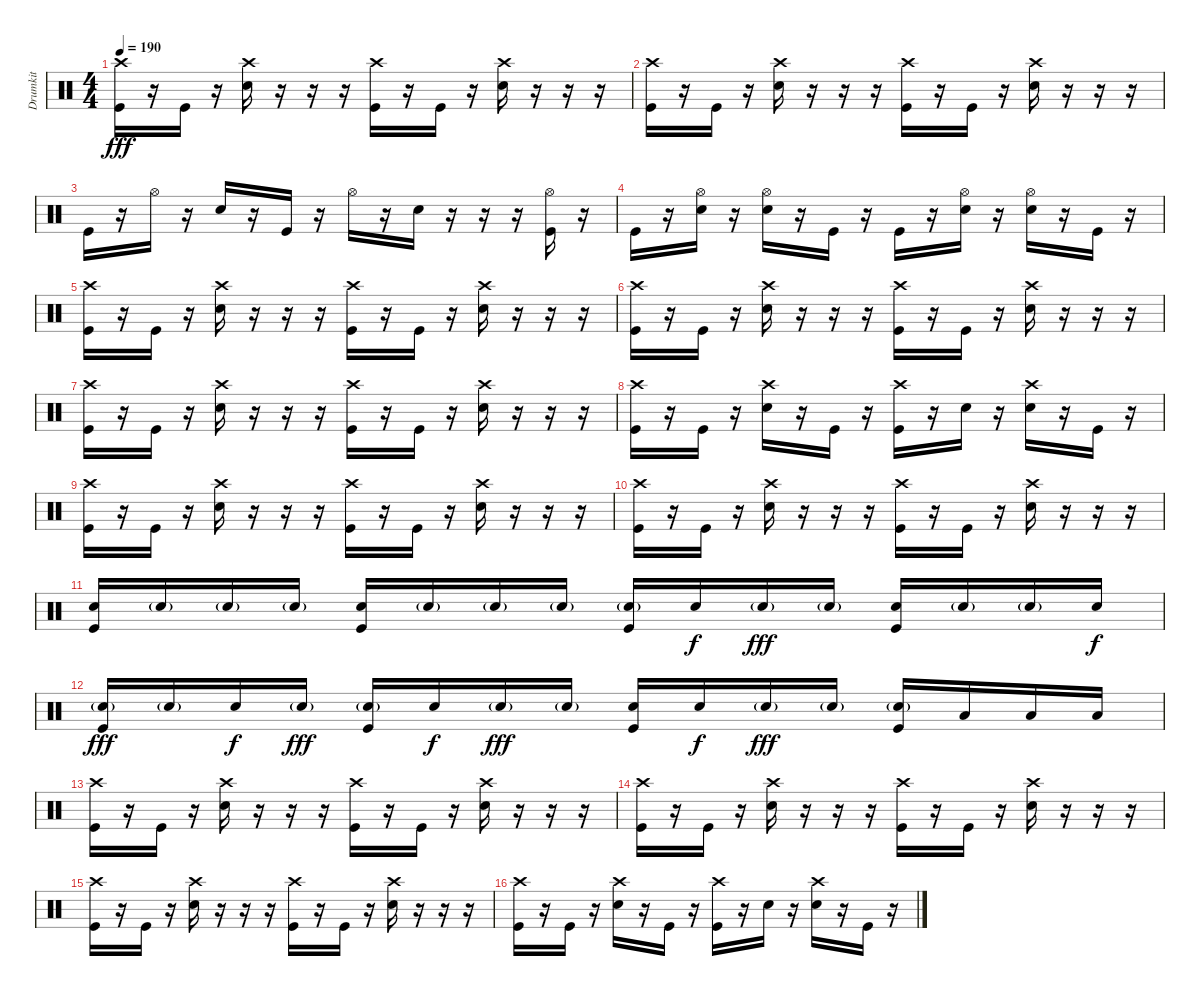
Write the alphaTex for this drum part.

\track ("Drumkit" "Drumkit") {instrument percussion}
\staff {score}
\articulation defaults
\ts (4 4)
\tempo 190
\clef neutral
\ks c
("Crash high (hit)" "Kick (hit)").16{dy fff} r.16 "Kick (hit)".16 r.16 ("Crash high (hit)" "Snare (hit) 2").16 r.16 r.16 r.16 ("Crash high (hit)" "Kick (hit)").16 r.16 "Kick (hit)".16 r.16 ("Crash high (hit)" "Snare (hit) 2").16 r.16 r.16 r.16 |
("Crash high (hit)" "Kick (hit)").16 r.16 "Kick (hit)".16 r.16 ("Crash high (hit)" "Snare (hit) 2").16 r.16 r.16 r.16 ("Crash high (hit)" "Kick (hit)").16 r.16 "Kick (hit)".16 r.16 ("Crash high (hit)" "Snare (hit) 2").16 r.16 r.16 r.16 |
"Kick (hit)".16 r.16 "Hi-Hat (open)".16 r.16 "Snare (hit) 2".16 r.16 "Kick (hit)".16 r.16 "Hi-Hat (open)".16 r.16 "Snare (hit) 2".16 r.16 r.16 r.16 ("Hi-Hat (open)" "Kick (hit)").16 r.16 |
"Kick (hit)".16 r.16 ("Hi-Hat (open)" "Snare (hit) 2").16 r.16 ("Hi-Hat (open)" "Snare (hit) 2").16 r.16 "Kick (hit)".16 r.16 "Kick (hit)".16 r.16 ("Hi-Hat (open)" "Snare (hit) 2").16 r.16 ("Hi-Hat (open)" "Snare (hit) 2").16 r.16 "Kick (hit)".16 r.16 |
("Crash high (hit)" "Kick (hit)").16 r.16 "Kick (hit)".16 r.16 ("Crash high (hit)" "Snare (hit) 2").16 r.16 r.16 r.16 ("Crash high (hit)" "Kick (hit)").16 r.16 "Kick (hit)".16 r.16 ("Crash high (hit)" "Snare (hit) 2").16 r.16 r.16 r.16 |
("Crash high (hit)" "Kick (hit)").16 r.16 "Kick (hit)".16 r.16 ("Crash high (hit)" "Snare (hit) 2").16 r.16 r.16 r.16 ("Crash high (hit)" "Kick (hit)").16 r.16 "Kick (hit)".16 r.16 ("Crash high (hit)" "Snare (hit) 2").16 r.16 r.16 r.16 |
("Crash high (hit)" "Kick (hit)").16 r.16 "Kick (hit)".16 r.16 ("Crash high (hit)" "Snare (hit) 2").16 r.16 r.16 r.16 ("Crash high (hit)" "Kick (hit)").16 r.16 "Kick (hit)".16 r.16 ("Crash high (hit)" "Snare (hit) 2").16 r.16 r.16 r.16 |
("Crash high (hit)" "Kick (hit)").16 r.16 "Kick (hit)".16 r.16 ("Crash high (hit)" "Snare (hit) 2").16 r.16 "Kick (hit)".16 r.16 ("Crash high (hit)" "Kick (hit)").16 r.16 "Snare (hit) 2".16 r.16 ("Crash high (hit)" "Snare (hit) 2").16 r.16 "Kick (hit)".16 r.16 |
("Crash high (hit)" "Kick (hit)").16 r.16 "Kick (hit)".16 r.16 ("Crash high (hit)" "Snare (hit) 2").16 r.16 r.16 r.16 ("Crash high (hit)" "Kick (hit)").16 r.16 "Kick (hit)".16 r.16 ("Crash high (hit)" "Snare (hit) 2").16 r.16 r.16 r.16 |
("Crash high (hit)" "Kick (hit)").16 r.16 "Kick (hit)".16 r.16 ("Crash high (hit)" "Snare (hit) 2").16 r.16 r.16 r.16 ("Crash high (hit)" "Kick (hit)").16 r.16 "Kick (hit)".16 r.16 ("Crash high (hit)" "Snare (hit) 2").16 r.16 r.16 r.16 |
("Snare (hit) 2" "Kick (hit)").16 "Snare (hit) 2"{g}.16 "Snare (hit) 2"{g}.16 "Snare (hit) 2"{g}.16 ("Snare (hit) 2" "Kick (hit)").16 "Snare (hit) 2"{g}.16 "Snare (hit) 2"{g}.16 "Snare (hit) 2"{g}.16 ("Snare (hit) 2"{g} "Kick (hit)").16 "Snare (hit) 2".16{dy f} "Snare (hit) 2"{g}.16{dy fff} "Snare (hit) 2"{g}.16 ("Snare (hit) 2" "Kick (hit)").16 "Snare (hit) 2"{g}.16 "Snare (hit) 2"{g}.16 "Snare (hit) 2".16{dy f} |
("Snare (hit) 2"{g} "Kick (hit)").16{dy fff} "Snare (hit) 2"{g}.16 "Snare (hit) 2".16{dy f} "Snare (hit) 2"{g}.16{dy fff} ("Snare (hit) 2"{g} "Kick (hit)").16 "Snare (hit) 2".16{dy f} "Snare (hit) 2"{g}.16{dy fff} "Snare (hit) 2"{g}.16 ("Snare (hit) 2" "Kick (hit)").16 "Snare (hit) 2".16{dy f} "Snare (hit) 2"{g}.16{dy fff} "Snare (hit) 2"{g}.16 ("Snare (hit) 2"{g} "Kick (hit)").16 "Low Tom (hit)".16 "Low Tom (hit)".16 "Low Tom (hit)".16 |
("Crash high (hit)" "Kick (hit)").16 r.16 "Kick (hit)".16 r.16 ("Crash high (hit)" "Snare (hit) 2").16 r.16 r.16 r.16 ("Crash high (hit)" "Kick (hit)").16 r.16 "Kick (hit)".16 r.16 ("Crash high (hit)" "Snare (hit) 2").16 r.16 r.16 r.16 |
("Crash high (hit)" "Kick (hit)").16 r.16 "Kick (hit)".16 r.16 ("Crash high (hit)" "Snare (hit) 2").16 r.16 r.16 r.16 ("Crash high (hit)" "Kick (hit)").16 r.16 "Kick (hit)".16 r.16 ("Crash high (hit)" "Snare (hit) 2").16 r.16 r.16 r.16 |
("Crash high (hit)" "Kick (hit)").16 r.16 "Kick (hit)".16 r.16 ("Crash high (hit)" "Snare (hit) 2").16 r.16 r.16 r.16 ("Crash high (hit)" "Kick (hit)").16 r.16 "Kick (hit)".16 r.16 ("Crash high (hit)" "Snare (hit) 2").16 r.16 r.16 r.16 |
("Crash high (hit)" "Kick (hit)").16 r.16 "Kick (hit)".16 r.16 ("Crash high (hit)" "Snare (hit) 2").16 r.16 "Kick (hit)".16 r.16 ("Crash high (hit)" "Kick (hit)").16 r.16 "Snare (hit) 2".16 r.16 ("Crash high (hit)" "Snare (hit) 2").16 r.16 "Kick (hit)".16 r.16
